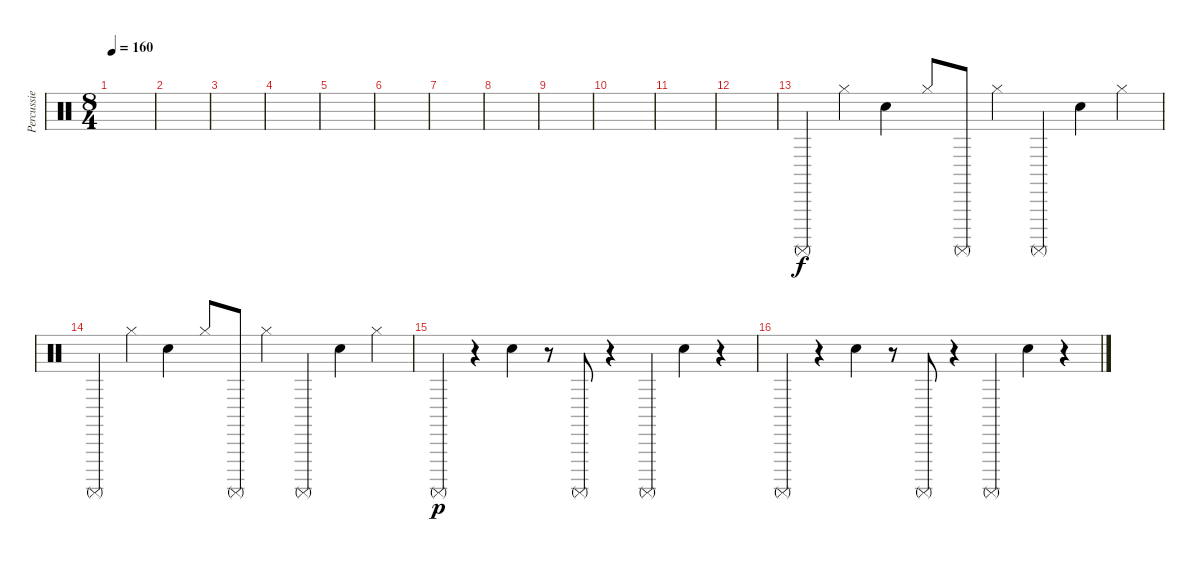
\track ("Percussie" "Percussie") {instrument percussion}
\staff {score}
\articulation defaults
\ts (8 4)
\tempo 160
\clef neutral
\ks c
|
|
|
|
|
|
|
|
|
|
|
|
"Surdo (mute)".4 "Hi-Hat (closed)".4 "Hand Clap (hit)".4 "Hi-Hat (closed)".8 "Surdo (mute)".8 "Hi-Hat (closed)".4 "Surdo (mute)".4 "Hand Clap (hit)".4 "Hi-Hat (closed)".4 |
"Surdo (mute)".4 "Hi-Hat (closed)".4 "Hand Clap (hit)".4 "Hi-Hat (closed)".8 "Surdo (mute)".8 "Hi-Hat (closed)".4 "Surdo (mute)".4 "Hand Clap (hit)".4 "Hi-Hat (closed)".4 |
"Surdo (mute)".4{dy p} r.4 "Hand Clap (hit)".4 r.8 "Surdo (mute)".8 r.4 "Surdo (mute)".4 "Hand Clap (hit)".4 r.4 |
"Surdo (mute)".4 r.4 "Hand Clap (hit)".4 r.8 "Surdo (mute)".8 r.4 "Surdo (mute)".4 "Hand Clap (hit)".4 r.4
